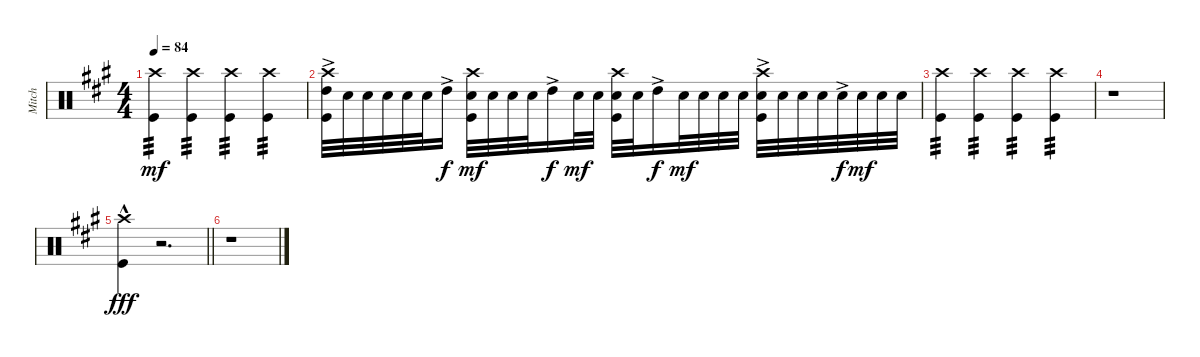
\track ("Mitch" "Mitch") {instrument percussion}
\staff {score}
\articulation defaults
\ts (4 4)
\tempo 84
\clef neutral
\ks a
("Crash high (hit)" "Kick (hit)").4{tp 3 dy mf} ("Crash high (hit)" "Kick (hit)").4{tp 3} ("Crash high (hit)" "Kick (hit)").4{tp 3} ("Crash high (hit)" "Kick (hit)").4{tp 3} |
("Crash high (hit)" "High Tom (hit)"{ac} "Kick (hit)").32 "Snare (hit) 2".32 "Snare (hit) 2".32 "Snare (hit) 2".32 "Snare (hit) 2".32 "Snare (hit) 2".32 "High Tom (hit)"{ac}.16{dy f} ("Crash high (hit)" "Snare (hit) 2" "Kick (hit)").32{dy mf} "Snare (hit) 2".32 "Snare (hit) 2".32 "Snare (hit) 2".32 "High Tom (hit)"{ac}.16{dy f} "Snare (hit) 2".32{dy mf} "Snare (hit) 2".32 ("Crash high (hit)" "Snare (hit) 2" "Kick (hit)").32 "Snare (hit) 2".32 "High Tom (hit)"{ac}.16{dy f} "Snare (hit) 2".32{dy mf} "Snare (hit) 2".32 "Snare (hit) 2".32 "Snare (hit) 2".32 ("Crash high (hit)" "Snare (hit) 2"{ac} "Kick (hit)").32 "Snare (hit) 2".32 "Snare (hit) 2".32 "Snare (hit) 2".32 "Snare (hit) 2"{ac}.32{dy f} "Snare (hit) 2".32{dy mf} "Snare (hit) 2".32 "Snare (hit) 2".32 |
("Crash high (hit)" "Kick (hit)").4{tp 3} ("Crash high (hit)" "Kick (hit)").4{tp 3} ("Crash high (hit)" "Kick (hit)").4{tp 3} ("Crash high (hit)" "Kick (hit)").4{tp 3} |
r.1 |
\barLineRight lightlight
("Crash high (hit)"{hac} "Kick (hit)"{hac}).4{dy fff} r.2{d} |
r.1
